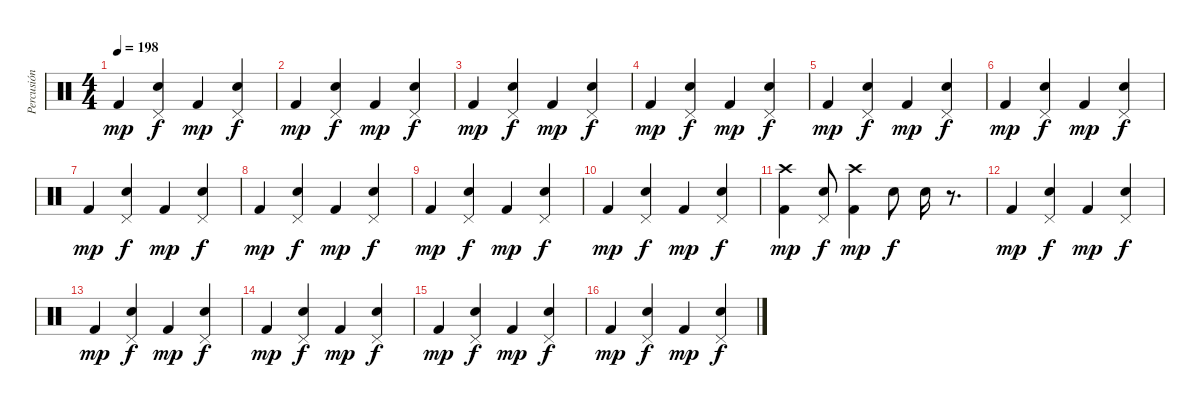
\track ("Percusión" "Percusión") {instrument percussion}
\staff {score}
\articulation defaults
\ts (4 4)
\tempo 198
\clef neutral
\ks c "Kick (hit) 2".4{dy mp}
("Pedal Hi-Hat (hit)" "Snare (hit) 2").4{dy f} "Kick (hit) 2".4{dy mp} ("Pedal Hi-Hat (hit)" "Snare (hit) 2").4{dy f} |
"Kick (hit) 2".4{dy mp} ("Pedal Hi-Hat (hit)" "Snare (hit) 2").4{dy f} "Kick (hit) 2".4{dy mp} ("Pedal Hi-Hat (hit)" "Snare (hit) 2").4{dy f} |
"Kick (hit) 2".4{dy mp} ("Pedal Hi-Hat (hit)" "Snare (hit) 2").4{dy f} "Kick (hit) 2".4{dy mp} ("Pedal Hi-Hat (hit)" "Snare (hit) 2").4{dy f} |
"Kick (hit) 2".4{dy mp} ("Pedal Hi-Hat (hit)" "Snare (hit) 2").4{dy f} "Kick (hit) 2".4{dy mp} ("Pedal Hi-Hat (hit)" "Snare (hit) 2").4{dy f} |
"Kick (hit) 2".4{dy mp} ("Pedal Hi-Hat (hit)" "Snare (hit) 2").4{dy f} "Kick (hit) 2".4{dy mp} ("Pedal Hi-Hat (hit)" "Snare (hit) 2").4{dy f} |
"Kick (hit) 2".4{dy mp} ("Pedal Hi-Hat (hit)" "Snare (hit) 2").4{dy f} "Kick (hit) 2".4{dy mp} ("Pedal Hi-Hat (hit)" "Snare (hit) 2").4{dy f} |
"Kick (hit) 2".4{dy mp} ("Pedal Hi-Hat (hit)" "Snare (hit) 2").4{dy f} "Kick (hit) 2".4{dy mp} ("Pedal Hi-Hat (hit)" "Snare (hit) 2").4{dy f} |
"Kick (hit) 2".4{dy mp} ("Pedal Hi-Hat (hit)" "Snare (hit) 2").4{dy f} "Kick (hit) 2".4{dy mp} ("Pedal Hi-Hat (hit)" "Snare (hit) 2").4{dy f} |
"Kick (hit) 2".4{dy mp} ("Pedal Hi-Hat (hit)" "Snare (hit) 2").4{dy f} "Kick (hit) 2".4{dy mp} ("Pedal Hi-Hat (hit)" "Snare (hit) 2").4{dy f} |
"Kick (hit) 2".4{dy mp} ("Pedal Hi-Hat (hit)" "Snare (hit) 2").4{dy f} "Kick (hit) 2".4{dy mp} ("Pedal Hi-Hat (hit)" "Snare (hit) 2").4{dy f} |
("Crash high (hit)" "Kick (hit) 2").4{dy mp} ("Pedal Hi-Hat (hit)" "Snare (hit) 2").8{dy f} ("Crash high (hit)" "Kick (hit) 2").4{dy mp} "Snare (hit) 2".8{dy f} "Snare (hit) 2".16 r.8{d} |
"Kick (hit) 2".4{dy mp} ("Pedal Hi-Hat (hit)" "Snare (hit) 2").4{dy f} "Kick (hit) 2".4{dy mp} ("Pedal Hi-Hat (hit)" "Snare (hit) 2").4{dy f} |
"Kick (hit) 2".4{dy mp} ("Pedal Hi-Hat (hit)" "Snare (hit) 2").4{dy f} "Kick (hit) 2".4{dy mp} ("Pedal Hi-Hat (hit)" "Snare (hit) 2").4{dy f} |
"Kick (hit) 2".4{dy mp} ("Pedal Hi-Hat (hit)" "Snare (hit) 2").4{dy f} "Kick (hit) 2".4{dy mp} ("Pedal Hi-Hat (hit)" "Snare (hit) 2").4{dy f} |
"Kick (hit) 2".4{dy mp} ("Pedal Hi-Hat (hit)" "Snare (hit) 2").4{dy f} "Kick (hit) 2".4{dy mp} ("Pedal Hi-Hat (hit)" "Snare (hit) 2").4{dy f} |
"Kick (hit) 2".4{dy mp} ("Pedal Hi-Hat (hit)" "Snare (hit) 2").4{dy f} "Kick (hit) 2".4{dy mp} ("Pedal Hi-Hat (hit)" "Snare (hit) 2").4{dy f}
